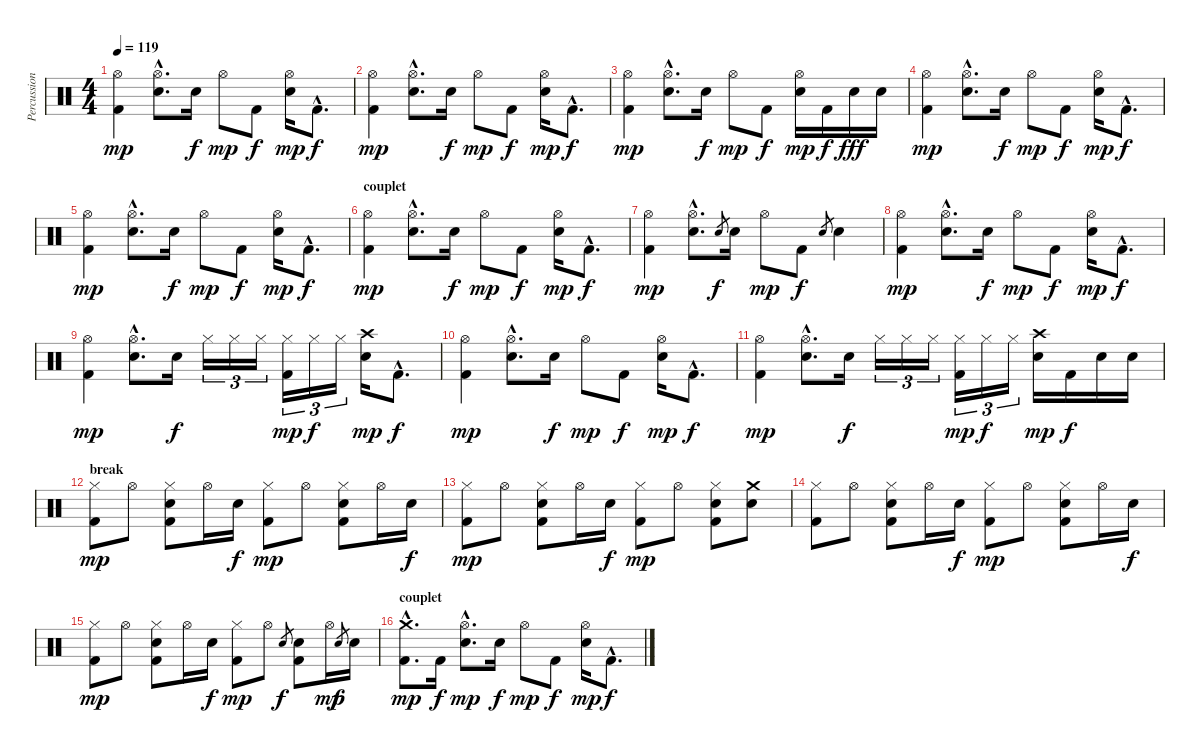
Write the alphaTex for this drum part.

\track ("Percussions" "Percussion") {instrument percussion}
\staff {score}
\articulation defaults
\ts (4 4)
\tempo 119
\clef neutral
\ks c
("Hi-Hat (open)" "Kick (hit) 2").4{dy mp} ("Hi-Hat (open)"{hac} "Snare (hit) 2"{hac}).8{d} "Snare (hit) 2".16{dy f} "Hi-Hat (open)".8{dy mp} "Kick (hit) 2".8{dy f} ("Hi-Hat (open)" "Snare (hit) 2").16{dy mp} "Kick (hit) 2"{hac}.8{d dy f} |
("Hi-Hat (open)" "Kick (hit) 2").4{dy mp} ("Hi-Hat (open)"{hac} "Snare (hit) 2"{hac}).8{d} "Snare (hit) 2".16{dy f} "Hi-Hat (open)".8{dy mp} "Kick (hit) 2".8{dy f} ("Hi-Hat (open)" "Snare (hit) 2").16{dy mp} "Kick (hit) 2"{hac}.8{d dy f} |
("Hi-Hat (open)" "Kick (hit) 2").4{dy mp} ("Hi-Hat (open)"{hac} "Snare (hit) 2"{hac}).8{d} "Snare (hit) 2".16{dy f} "Hi-Hat (open)".8{dy mp} "Kick (hit) 2".8{dy f} ("Hi-Hat (open)" "Snare (hit) 2").16{dy mp} "Kick (hit) 2".16{dy f} "Snare (hit) 2".16{dy fff} "Snare (hit) 2".16 |
("Hi-Hat (open)" "Kick (hit) 2").4{dy mp} ("Hi-Hat (open)"{hac} "Snare (hit) 2"{hac}).8{d} "Snare (hit) 2".16{dy f} "Hi-Hat (open)".8{dy mp} "Kick (hit) 2".8{dy f} ("Hi-Hat (open)" "Snare (hit) 2").16{dy mp} "Kick (hit) 2"{hac}.8{d dy f} |
("Hi-Hat (open)" "Kick (hit) 2").4{dy mp} ("Hi-Hat (open)"{hac} "Snare (hit) 2"{hac}).8{d} "Snare (hit) 2".16{dy f} "Hi-Hat (open)".8{dy mp} "Kick (hit) 2".8{dy f} ("Hi-Hat (open)" "Snare (hit) 2").16{dy mp} "Kick (hit) 2"{hac}.8{d dy f} |
\section ("" "couplet")
("Hi-Hat (open)" "Kick (hit) 2").4{dy mp} ("Hi-Hat (open)"{hac} "Snare (hit) 2"{hac}).8{d} "Snare (hit) 2".16{dy f} "Hi-Hat (open)".8{dy mp} "Kick (hit) 2".8{dy f} ("Hi-Hat (open)" "Snare (hit) 2").16{dy mp} "Kick (hit) 2"{hac}.8{d dy f} |
("Hi-Hat (open)" "Kick (hit) 2").4{dy mp} ("Hi-Hat (open)"{hac} "Snare (hit) 2"{hac}).8{d} "Snare (hit) 2".8{gr dy f} "Snare (hit) 2".16 "Hi-Hat (open)".8{dy mp} "Kick (hit) 2".8{dy f} "Snare (hit) 2".8{gr} "Snare (hit) 2".4 |
("Hi-Hat (open)" "Kick (hit) 2").4{dy mp} ("Hi-Hat (open)"{hac} "Snare (hit) 2"{hac}).8{d} "Snare (hit) 2".16{dy f} "Hi-Hat (open)".8{dy mp} "Kick (hit) 2".8{dy f} ("Hi-Hat (open)" "Snare (hit) 2").16{dy mp} "Kick (hit) 2"{hac}.8{d dy f} |
("Hi-Hat (open)" "Kick (hit) 2").4{dy mp} ("Hi-Hat (open)"{hac} "Snare (hit) 2"{hac}).8{d} "Snare (hit) 2".16{dy f} "Hi-Hat (closed)".16{tu (3 2)} "Hi-Hat (closed)".16{tu (3 2)} "Hi-Hat (closed)".16{tu (3 2)} ("Hi-Hat (closed)" "Kick (hit) 2").16{tu (3 2) dy mp} "Hi-Hat (closed)".16{tu (3 2) dy f} "Hi-Hat (closed)".16{tu (3 2)} ("Crash high (hit)" "Snare (hit) 2").16{dy mp} "Kick (hit) 2"{hac}.8{d dy f} |
("Hi-Hat (open)" "Kick (hit) 2").4{dy mp} ("Hi-Hat (open)"{hac} "Snare (hit) 2"{hac}).8{d} "Snare (hit) 2".16{dy f} "Hi-Hat (open)".8{dy mp} "Kick (hit) 2".8{dy f} ("Hi-Hat (open)" "Snare (hit) 2").16{dy mp} "Kick (hit) 2"{hac}.8{d dy f} |
("Hi-Hat (open)" "Kick (hit) 2").4{dy mp} ("Hi-Hat (open)"{hac} "Snare (hit) 2"{hac}).8{d} "Snare (hit) 2".16{dy f} "Hi-Hat (closed)".16{tu (3 2)} "Hi-Hat (closed)".16{tu (3 2)} "Hi-Hat (closed)".16{tu (3 2)} ("Hi-Hat (closed)" "Kick (hit) 2").16{tu (3 2) dy mp} "Hi-Hat (closed)".16{tu (3 2) dy f} "Hi-Hat (closed)".16{tu (3 2)} ("Crash high (hit)" "Snare (hit) 2").16{dy mp} "Kick (hit) 2".16{dy f} "Snare (hit) 2".16 "Snare (hit) 2".16 |
\section ("" "break")
("Hi-Hat (closed)" "Kick (hit) 2").8{dy mp} "Hi-Hat (open)".8 ("Hi-Hat (closed)" "Snare (hit) 2" "Kick (hit) 2").8 "Hi-Hat (open)".16 "Snare (hit) 2".16{dy f} ("Hi-Hat (closed)" "Kick (hit) 2").8{dy mp} "Hi-Hat (open)".8 ("Hi-Hat (closed)" "Snare (hit) 2" "Kick (hit) 2").8 "Hi-Hat (open)".16 "Snare (hit) 2".16{dy f} |
("Hi-Hat (closed)" "Kick (hit) 2").8{dy mp} "Hi-Hat (open)".8 ("Hi-Hat (closed)" "Snare (hit) 2" "Kick (hit) 2").8 "Hi-Hat (open)".16 "Snare (hit) 2".16{dy f} ("Hi-Hat (closed)" "Kick (hit) 2").8{dy mp} "Hi-Hat (open)".8 ("Hi-Hat (closed)" "Snare (hit) 2" "Kick (hit) 2").8 ("Crash medium (hit)" "Snare (hit) 2").8 |
("Hi-Hat (closed)" "Kick (hit) 2").8 "Hi-Hat (open)".8 ("Hi-Hat (closed)" "Snare (hit) 2" "Kick (hit) 2").8 "Hi-Hat (open)".16 "Snare (hit) 2".16{dy f} ("Hi-Hat (closed)" "Kick (hit) 2").8{dy mp} "Hi-Hat (open)".8 ("Hi-Hat (closed)" "Snare (hit) 2" "Kick (hit) 2").8 "Hi-Hat (open)".16 "Snare (hit) 2".16{dy f} |
("Hi-Hat (closed)" "Kick (hit) 2").8{dy mp} "Hi-Hat (open)".8 ("Hi-Hat (closed)" "Snare (hit) 2" "Kick (hit) 2").8 "Hi-Hat (open)".16 "Snare (hit) 2".16{dy f} ("Hi-Hat (closed)" "Kick (hit) 2").8{dy mp} "Hi-Hat (open)".8 "Snare (hit) 2".8{gr dy f} ("Snare (hit) 2" "Kick (hit) 2").8 "Hi-Hat (open)".16{dy mp} "Snare (hit) 2".8{gr dy f} "Snare (hit) 2".16 |
\section ("" "couplet")
("Crash medium (hit)"{hac} "Kick (hit) 2"{hac}).8{d dy mp} "Kick (hit) 2".16{dy f} ("Hi-Hat (open)"{hac} "Snare (hit) 2"{hac}).8{d dy mp} "Electric Snare (hit)".16{dy f} "Hi-Hat (open)".8{dy mp} "Kick (hit) 2".8{dy f} ("Hi-Hat (open)" "Snare (hit) 2").16{dy mp} "Kick (hit) 2"{hac}.8{d dy f}
